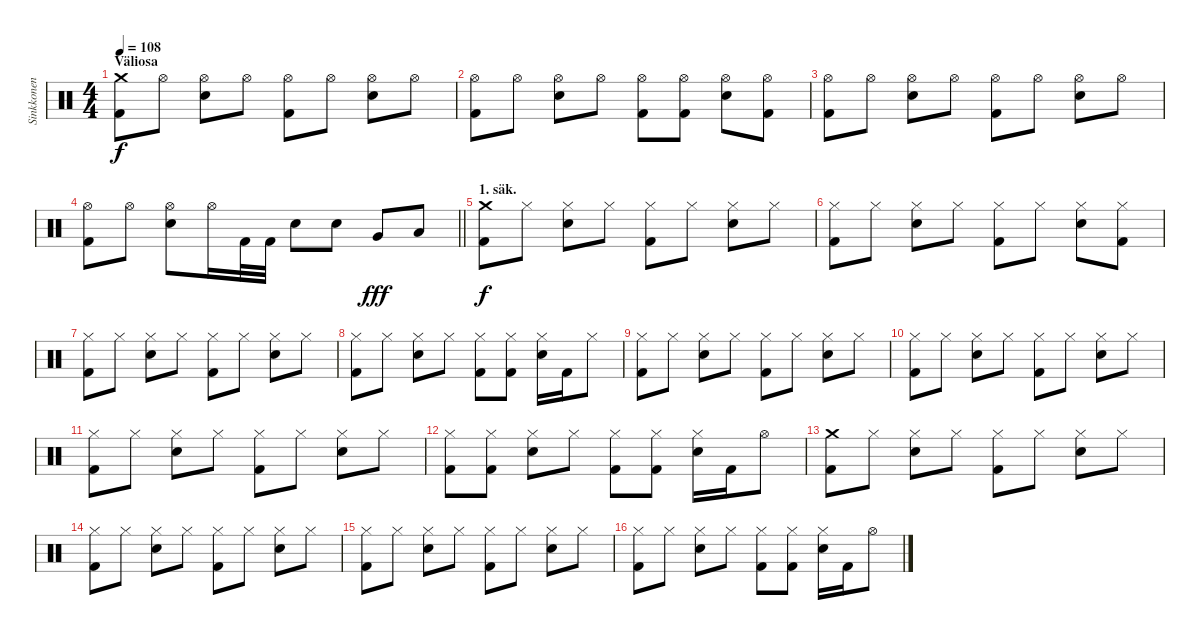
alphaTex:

\track ("Sinkkonen" "Sinkkonen") {instrument percussion}
\staff {score}
\articulation defaults
\ts (4 4)
\section ("" "Väliosa")
\tempo 108
\clef neutral
\ks c
("Kick (hit) 2" "Crash medium (hit)").8{dy f} "Hi-Hat (open)".8 ("Hi-Hat (open)" "Snare (hit) 2").8 "Hi-Hat (open)".8 ("Kick (hit) 2" "Hi-Hat (open)").8 "Hi-Hat (open)".8 ("Hi-Hat (open)" "Snare (hit) 2").8 "Hi-Hat (open)".8 |
("Kick (hit) 2" "Hi-Hat (open)").8 "Hi-Hat (open)".8 ("Hi-Hat (open)" "Snare (hit) 2").8 "Hi-Hat (open)".8 ("Kick (hit) 2" "Hi-Hat (open)").8 ("Kick (hit) 2" "Hi-Hat (open)").8 ("Hi-Hat (open)" "Snare (hit) 2").8 ("Kick (hit) 2" "Hi-Hat (open)").8 |
("Kick (hit) 2" "Hi-Hat (open)").8 "Hi-Hat (open)".8 ("Hi-Hat (open)" "Snare (hit) 2").8 "Hi-Hat (open)".8 ("Kick (hit) 2" "Hi-Hat (open)").8 "Hi-Hat (open)".8 ("Hi-Hat (open)" "Snare (hit) 2").8 "Hi-Hat (open)".8 |
\barLineRight lightlight
("Kick (hit) 2" "Hi-Hat (open)").8 "Hi-Hat (open)".8 ("Hi-Hat (open)" "Snare (hit) 2").8 "Hi-Hat (open)".16 "Kick (hit) 2".32 "Kick (hit) 2".32 "Snare (hit) 2".8 "Snare (hit) 2".8 "Very Low Tom (hit)".8{dy fff} "Low Floor Tom (hit)".8 |
\section ("" "1. säk.")
("Kick (hit) 2" "Crash medium (hit)").8{dy f} "Hi-Hat (closed)".8 ("Hi-Hat (closed)" "Snare (hit) 2").8 "Hi-Hat (closed)".8 ("Kick (hit) 2" "Hi-Hat (closed)").8 "Hi-Hat (closed)".8 ("Hi-Hat (closed)" "Snare (hit) 2").8 "Hi-Hat (closed)".8 |
("Kick (hit) 2" "Hi-Hat (closed)").8 "Hi-Hat (closed)".8 ("Hi-Hat (closed)" "Snare (hit) 2").8 "Hi-Hat (closed)".8 ("Kick (hit) 2" "Hi-Hat (closed)").8 "Hi-Hat (closed)".8 ("Hi-Hat (closed)" "Snare (hit) 2").8 ("Kick (hit) 2" "Hi-Hat (closed)").8 |
("Kick (hit) 2" "Hi-Hat (closed)").8 "Hi-Hat (closed)".8 ("Hi-Hat (closed)" "Snare (hit) 2").8 "Hi-Hat (closed)".8 ("Kick (hit) 2" "Hi-Hat (closed)").8 "Hi-Hat (closed)".8 ("Hi-Hat (closed)" "Snare (hit) 2").8 "Hi-Hat (closed)".8 |
("Kick (hit) 2" "Hi-Hat (closed)").8 "Hi-Hat (closed)".8 ("Hi-Hat (closed)" "Snare (hit) 2").8 "Hi-Hat (closed)".8 ("Kick (hit) 2" "Hi-Hat (closed)").8 ("Kick (hit) 2" "Hi-Hat (closed)").8 ("Hi-Hat (closed)" "Snare (hit) 2").16 "Kick (hit) 2".16 "Hi-Hat (closed)".8 |
("Kick (hit) 2" "Hi-Hat (closed)").8 "Hi-Hat (closed)".8 ("Hi-Hat (closed)" "Snare (hit) 2").8 "Hi-Hat (closed)".8 ("Kick (hit) 2" "Hi-Hat (closed)").8 "Hi-Hat (closed)".8 ("Hi-Hat (closed)" "Snare (hit) 2").8 "Hi-Hat (closed)".8 |
("Kick (hit) 2" "Hi-Hat (closed)").8 "Hi-Hat (closed)".8 ("Hi-Hat (closed)" "Snare (hit) 2").8 "Hi-Hat (closed)".8 ("Kick (hit) 2" "Hi-Hat (closed)").8 "Hi-Hat (closed)".8 ("Hi-Hat (closed)" "Snare (hit) 2").8 "Hi-Hat (closed)".8 |
("Kick (hit) 2" "Hi-Hat (closed)").8 "Hi-Hat (closed)".8 ("Hi-Hat (closed)" "Snare (hit) 2").8 "Hi-Hat (closed)".8 ("Kick (hit) 2" "Hi-Hat (closed)").8 "Hi-Hat (closed)".8 ("Hi-Hat (closed)" "Snare (hit) 2").8 "Hi-Hat (closed)".8 |
("Kick (hit) 2" "Hi-Hat (closed)").8 ("Kick (hit) 2" "Hi-Hat (closed)").8 ("Hi-Hat (closed)" "Snare (hit) 2").8 "Hi-Hat (closed)".8 ("Kick (hit) 2" "Hi-Hat (closed)").8 ("Kick (hit) 2" "Hi-Hat (closed)").8 ("Hi-Hat (closed)" "Snare (hit) 2").16 "Kick (hit) 2".16 "Hi-Hat (open)".8 |
("Kick (hit) 2" "Crash medium (hit)").8 "Hi-Hat (closed)".8 ("Hi-Hat (closed)" "Snare (hit) 2").8 "Hi-Hat (closed)".8 ("Kick (hit) 2" "Hi-Hat (closed)").8 "Hi-Hat (closed)".8 ("Hi-Hat (closed)" "Snare (hit) 2").8 "Hi-Hat (closed)".8 |
("Kick (hit) 2" "Hi-Hat (closed)").8 "Hi-Hat (closed)".8 ("Hi-Hat (closed)" "Snare (hit) 2").8 "Hi-Hat (closed)".8 ("Kick (hit) 2" "Hi-Hat (closed)").8 "Hi-Hat (closed)".8 ("Hi-Hat (closed)" "Snare (hit) 2").8 "Hi-Hat (closed)".8 |
("Kick (hit) 2" "Hi-Hat (closed)").8 "Hi-Hat (closed)".8 ("Hi-Hat (closed)" "Snare (hit) 2").8 "Hi-Hat (closed)".8 ("Kick (hit) 2" "Hi-Hat (closed)").8 "Hi-Hat (closed)".8 ("Hi-Hat (closed)" "Snare (hit) 2").8 "Hi-Hat (closed)".8 |
("Kick (hit) 2" "Hi-Hat (closed)").8 "Hi-Hat (closed)".8 ("Hi-Hat (closed)" "Snare (hit) 2").8 "Hi-Hat (closed)".8 ("Kick (hit) 2" "Hi-Hat (closed)").8 ("Kick (hit) 2" "Hi-Hat (closed)").8 ("Hi-Hat (closed)" "Snare (hit) 2").16 "Kick (hit) 2".16 "Hi-Hat (open)".8
